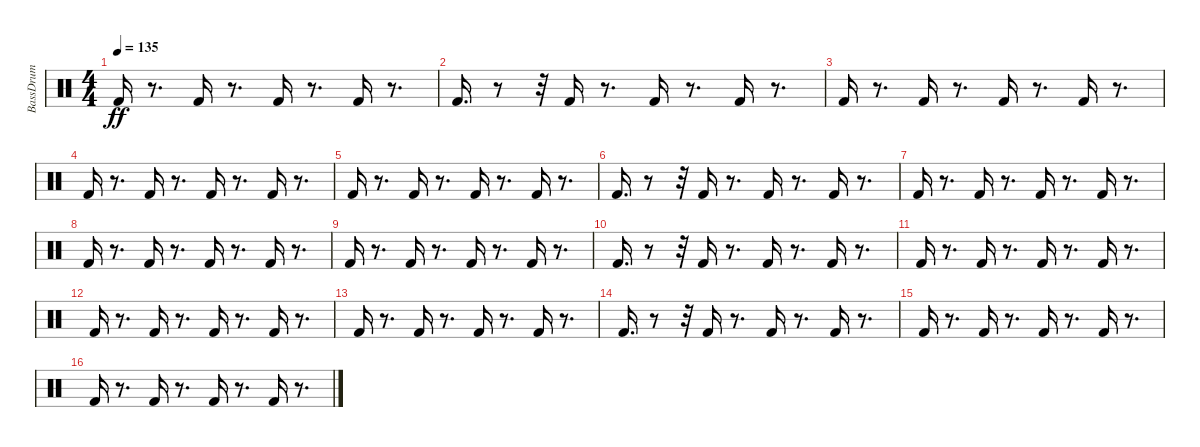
\track ("BassDrum" "BassDrum") {instrument percussion}
\staff {score}
\articulation defaults
\ts (4 4)
\tempo 135
\clef neutral
\ks c "Kick (hit) 2".16{dy ff}
r.8{d} "Kick (hit) 2".16 r.8{d} "Kick (hit) 2".16 r.8{d} "Kick (hit) 2".16 r.8{d} |
"Kick (hit) 2".16{d} r.8 r.32 "Kick (hit) 2".16 r.8{d} "Kick (hit) 2".16 r.8{d} "Kick (hit) 2".16 r.8{d} |
"Kick (hit) 2".16 r.8{d} "Kick (hit) 2".16 r.8{d} "Kick (hit) 2".16 r.8{d} "Kick (hit) 2".16 r.8{d} |
"Kick (hit) 2".16 r.8{d} "Kick (hit) 2".16 r.8{d} "Kick (hit) 2".16 r.8{d} "Kick (hit) 2".16 r.8{d} |
"Kick (hit) 2".16 r.8{d} "Kick (hit) 2".16 r.8{d} "Kick (hit) 2".16 r.8{d} "Kick (hit) 2".16 r.8{d} |
"Kick (hit) 2".16{d} r.8 r.32 "Kick (hit) 2".16 r.8{d} "Kick (hit) 2".16 r.8{d} "Kick (hit) 2".16 r.8{d} |
"Kick (hit) 2".16 r.8{d} "Kick (hit) 2".16 r.8{d} "Kick (hit) 2".16 r.8{d} "Kick (hit) 2".16 r.8{d} |
"Kick (hit) 2".16 r.8{d} "Kick (hit) 2".16 r.8{d} "Kick (hit) 2".16 r.8{d} "Kick (hit) 2".16 r.8{d} |
"Kick (hit) 2".16 r.8{d} "Kick (hit) 2".16 r.8{d} "Kick (hit) 2".16 r.8{d} "Kick (hit) 2".16 r.8{d} |
"Kick (hit) 2".16{d} r.8 r.32 "Kick (hit) 2".16 r.8{d} "Kick (hit) 2".16 r.8{d} "Kick (hit) 2".16 r.8{d} |
"Kick (hit) 2".16 r.8{d} "Kick (hit) 2".16 r.8{d} "Kick (hit) 2".16 r.8{d} "Kick (hit) 2".16 r.8{d} |
"Kick (hit) 2".16 r.8{d} "Kick (hit) 2".16 r.8{d} "Kick (hit) 2".16 r.8{d} "Kick (hit) 2".16 r.8{d} |
"Kick (hit) 2".16 r.8{d} "Kick (hit) 2".16 r.8{d} "Kick (hit) 2".16 r.8{d} "Kick (hit) 2".16 r.8{d} |
"Kick (hit) 2".16{d} r.8 r.32 "Kick (hit) 2".16 r.8{d} "Kick (hit) 2".16 r.8{d} "Kick (hit) 2".16 r.8{d} |
"Kick (hit) 2".16 r.8{d} "Kick (hit) 2".16 r.8{d} "Kick (hit) 2".16 r.8{d} "Kick (hit) 2".16 r.8{d} |
"Kick (hit) 2".16 r.8{d} "Kick (hit) 2".16 r.8{d} "Kick (hit) 2".16 r.8{d} "Kick (hit) 2".16 r.8{d}
